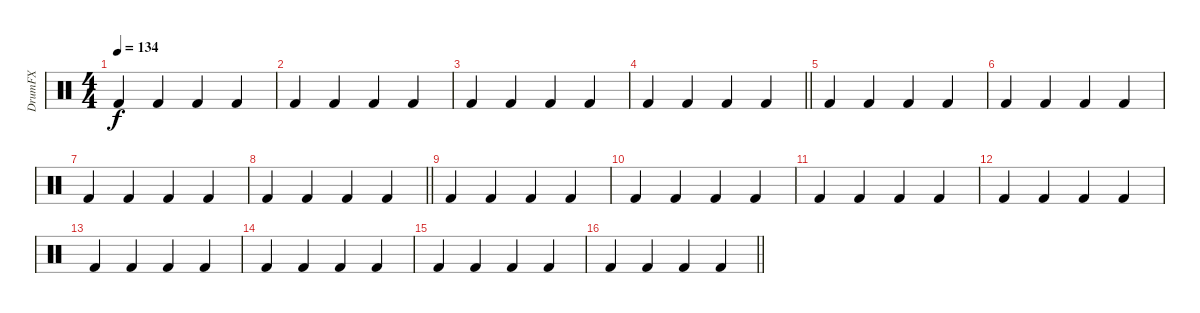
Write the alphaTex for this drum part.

\track ("DrumFX" "DrumFX") {instrument percussion}
\staff {score}
\articulation defaults
\ts (4 4)
\tempo 134
\clef neutral
\ks c "Kick (hit) 2".4{dy f} "Kick (hit) 2".4 "Kick (hit) 2".4 "Kick (hit) 2".4
|
"Kick (hit) 2".4 "Kick (hit) 2".4 "Kick (hit) 2".4 "Kick (hit) 2".4 |
"Kick (hit) 2".4 "Kick (hit) 2".4 "Kick (hit) 2".4 "Kick (hit) 2".4 |
\barLineRight lightlight "Kick (hit) 2".4 "Kick (hit) 2".4 "Kick (hit) 2".4 "Kick (hit) 2".4
|
\section ("" "")
"Kick (hit) 2".4 "Kick (hit) 2".4 "Kick (hit) 2".4 "Kick (hit) 2".4 |
"Kick (hit) 2".4 "Kick (hit) 2".4 "Kick (hit) 2".4 "Kick (hit) 2".4 |
"Kick (hit) 2".4 "Kick (hit) 2".4 "Kick (hit) 2".4 "Kick (hit) 2".4 |
\barLineRight lightlight "Kick (hit) 2".4 "Kick (hit) 2".4 "Kick (hit) 2".4 "Kick (hit) 2".4
|
\section ("" "")
"Kick (hit) 2".4 "Kick (hit) 2".4 "Kick (hit) 2".4 "Kick (hit) 2".4 |
"Kick (hit) 2".4 "Kick (hit) 2".4 "Kick (hit) 2".4 "Kick (hit) 2".4 |
"Kick (hit) 2".4 "Kick (hit) 2".4 "Kick (hit) 2".4 "Kick (hit) 2".4 |
"Kick (hit) 2".4 "Kick (hit) 2".4 "Kick (hit) 2".4 "Kick (hit) 2".4 |
"Kick (hit) 2".4 "Kick (hit) 2".4 "Kick (hit) 2".4 "Kick (hit) 2".4 |
"Kick (hit) 2".4 "Kick (hit) 2".4 "Kick (hit) 2".4 "Kick (hit) 2".4 |
"Kick (hit) 2".4 "Kick (hit) 2".4 "Kick (hit) 2".4 "Kick (hit) 2".4 |
\barLineRight lightlight "Kick (hit) 2".4 "Kick (hit) 2".4 "Kick (hit) 2".4 "Kick (hit) 2".4
